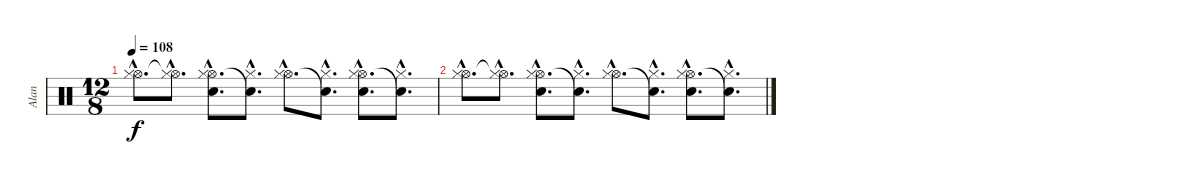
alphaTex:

\track ("Alan" "Alan") {instrument percussion}
\staff {score}
\articulation defaults
\ts (12 8)
\tempo 108
\clef neutral
\ks c
("Hi-Hat (open)"{hac} "Hi-Hat (closed)"{hac}).8{d dy f} ("Hi-Hat (open)"{hac t} "Hi-Hat (closed)"{hac}).8{d} ("Hi-Hat (open)"{hac} "Snare (hit) 2"{hac} "Hi-Hat (closed)"{hac}).8{d} ("Snare (hit)"{hac t} "Hi-Hat (closed)"{hac}).8{d} ("Hi-Hat (open)"{hac} "Hi-Hat (closed)"{hac}).8{d} ("Snare (hit)"{hac t} "Hi-Hat (closed)"{hac}).8{d} ("Hi-Hat (open)"{hac} "Snare (hit) 2"{hac} "Hi-Hat (closed)"{hac}).8{d} ("Snare (hit)"{hac t} "Hi-Hat (closed)"{hac}).8{d} |
("Hi-Hat (open)"{hac} "Hi-Hat (closed)"{hac}).8{d} ("Hi-Hat (open)"{hac t} "Hi-Hat (closed)"{hac}).8{d} ("Hi-Hat (open)"{hac} "Snare (hit) 2"{hac} "Hi-Hat (closed)"{hac}).8{d} ("Snare (hit)"{hac t} "Hi-Hat (closed)"{hac}).8{d} ("Hi-Hat (open)"{hac} "Hi-Hat (closed)"{hac}).8{d} ("Snare (hit)"{hac t} "Hi-Hat (closed)"{hac}).8{d} ("Hi-Hat (open)"{hac} "Snare (hit) 2"{hac} "Hi-Hat (closed)"{hac}).8{d} ("Snare (hit)"{hac t} "Hi-Hat (closed)"{hac}).8{d}
